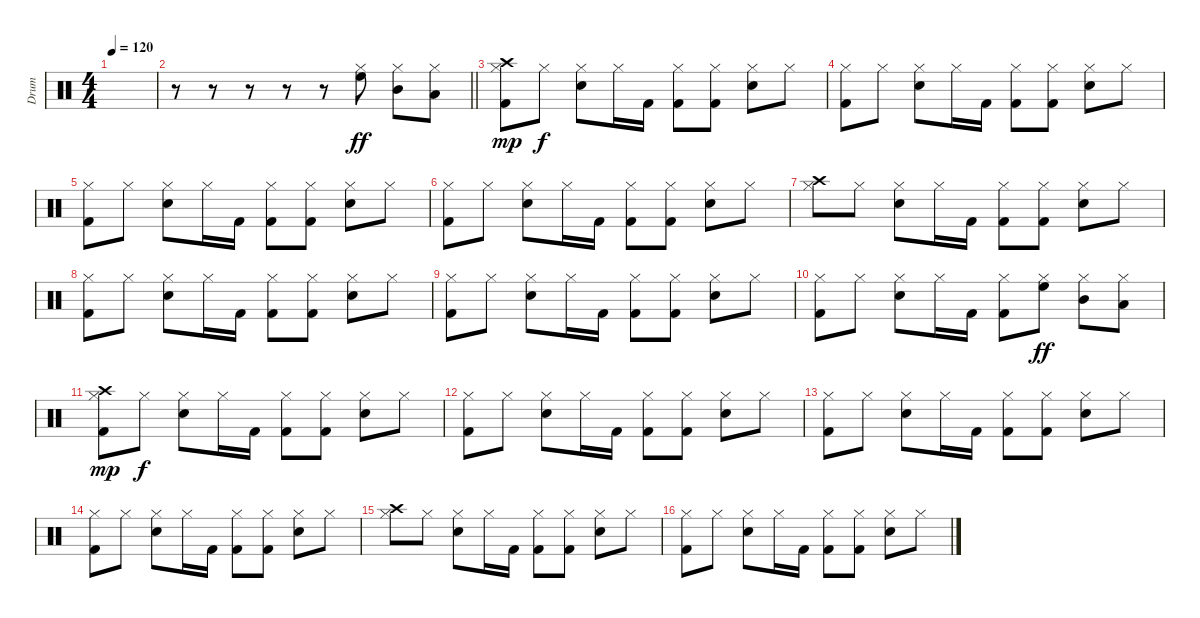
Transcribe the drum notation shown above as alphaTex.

\track ("Drum" "Drum") {instrument percussion}
\staff {score}
\articulation defaults
\ts (4 4)
\tempo 120
\clef neutral
\ks c
|
\barLineRight lightlight
r.8 r.8 r.8 r.8 r.8 ("Hi-Hat (closed)" "High Floor Tom (hit)").8{dy ff} ("Hi-Hat (closed)" "Mid Tom (hit)").8 ("Hi-Hat (closed)" "Low Tom (hit)").8 |
("Kick (hit) 2" "Hi-Hat (closed)" "Crash high (hit)").8{dy mp} "Hi-Hat (closed)".8{dy f} ("Electric Snare (hit)" "Hi-Hat (closed)").8 "Hi-Hat (closed)".16 "Kick (hit) 2".16 ("Kick (hit) 2" "Hi-Hat (closed)").8 ("Kick (hit) 2" "Hi-Hat (closed)").8 ("Electric Snare (hit)" "Hi-Hat (closed)").8 "Hi-Hat (closed)".8 |
("Kick (hit) 2" "Hi-Hat (closed)").8 "Hi-Hat (closed)".8 ("Electric Snare (hit)" "Hi-Hat (closed)").8 "Hi-Hat (closed)".16 "Kick (hit) 2".16 ("Kick (hit) 2" "Hi-Hat (closed)").8 ("Kick (hit) 2" "Hi-Hat (closed)").8 ("Electric Snare (hit)" "Hi-Hat (closed)").8 "Hi-Hat (closed)".8 |
("Kick (hit) 2" "Hi-Hat (closed)").8 "Hi-Hat (closed)".8 ("Electric Snare (hit)" "Hi-Hat (closed)").8 "Hi-Hat (closed)".16 "Kick (hit) 2".16 ("Kick (hit) 2" "Hi-Hat (closed)").8 ("Kick (hit) 2" "Hi-Hat (closed)").8 ("Electric Snare (hit)" "Hi-Hat (closed)").8 "Hi-Hat (closed)".8 |
("Kick (hit) 2" "Hi-Hat (closed)").8 "Hi-Hat (closed)".8 ("Electric Snare (hit)" "Hi-Hat (closed)").8 "Hi-Hat (closed)".16 "Kick (hit) 2".16 ("Kick (hit) 2" "Hi-Hat (closed)").8 ("Kick (hit) 2" "Hi-Hat (closed)").8 ("Electric Snare (hit)" "Hi-Hat (closed)").8 "Hi-Hat (closed)".8 |
("Crash high (hit)" "Hi-Hat (closed)").8 "Hi-Hat (closed)".8 ("Electric Snare (hit)" "Hi-Hat (closed)").8 "Hi-Hat (closed)".16 "Kick (hit) 2".16 ("Kick (hit) 2" "Hi-Hat (closed)").8 ("Kick (hit) 2" "Hi-Hat (closed)").8 ("Electric Snare (hit)" "Hi-Hat (closed)").8 "Hi-Hat (closed)".8 |
("Kick (hit) 2" "Hi-Hat (closed)").8 "Hi-Hat (closed)".8 ("Electric Snare (hit)" "Hi-Hat (closed)").8 "Hi-Hat (closed)".16 "Kick (hit) 2".16 ("Kick (hit) 2" "Hi-Hat (closed)").8 ("Kick (hit) 2" "Hi-Hat (closed)").8 ("Electric Snare (hit)" "Hi-Hat (closed)").8 "Hi-Hat (closed)".8 |
("Kick (hit) 2" "Hi-Hat (closed)").8 "Hi-Hat (closed)".8 ("Electric Snare (hit)" "Hi-Hat (closed)").8 "Hi-Hat (closed)".16 "Kick (hit) 2".16 ("Kick (hit) 2" "Hi-Hat (closed)").8 ("Kick (hit) 2" "Hi-Hat (closed)").8 ("Electric Snare (hit)" "Hi-Hat (closed)").8 "Hi-Hat (closed)".8 |
("Kick (hit) 2" "Hi-Hat (closed)").8 "Hi-Hat (closed)".8 ("Electric Snare (hit)" "Hi-Hat (closed)").8 "Hi-Hat (closed)".16 "Kick (hit) 2".16 ("Kick (hit) 2" "Hi-Hat (closed)").8 ("Hi-Hat (closed)" "High Floor Tom (hit)").8{dy ff} ("Hi-Hat (closed)" "Mid Tom (hit)").8 ("Hi-Hat (closed)" "Low Tom (hit)").8 |
("Kick (hit) 2" "Hi-Hat (closed)" "Crash high (hit)").8{dy mp} "Hi-Hat (closed)".8{dy f} ("Electric Snare (hit)" "Hi-Hat (closed)").8 "Hi-Hat (closed)".16 "Kick (hit) 2".16 ("Kick (hit) 2" "Hi-Hat (closed)").8 ("Kick (hit) 2" "Hi-Hat (closed)").8 ("Electric Snare (hit)" "Hi-Hat (closed)").8 "Hi-Hat (closed)".8 |
("Kick (hit) 2" "Hi-Hat (closed)").8 "Hi-Hat (closed)".8 ("Electric Snare (hit)" "Hi-Hat (closed)").8 "Hi-Hat (closed)".16 "Kick (hit) 2".16 ("Kick (hit) 2" "Hi-Hat (closed)").8 ("Kick (hit) 2" "Hi-Hat (closed)").8 ("Electric Snare (hit)" "Hi-Hat (closed)").8 "Hi-Hat (closed)".8 |
("Kick (hit) 2" "Hi-Hat (closed)").8 "Hi-Hat (closed)".8 ("Electric Snare (hit)" "Hi-Hat (closed)").8 "Hi-Hat (closed)".16 "Kick (hit) 2".16 ("Kick (hit) 2" "Hi-Hat (closed)").8 ("Kick (hit) 2" "Hi-Hat (closed)").8 ("Electric Snare (hit)" "Hi-Hat (closed)").8 "Hi-Hat (closed)".8 |
("Kick (hit) 2" "Hi-Hat (closed)").8 "Hi-Hat (closed)".8 ("Electric Snare (hit)" "Hi-Hat (closed)").8 "Hi-Hat (closed)".16 "Kick (hit) 2".16 ("Kick (hit) 2" "Hi-Hat (closed)").8 ("Kick (hit) 2" "Hi-Hat (closed)").8 ("Electric Snare (hit)" "Hi-Hat (closed)").8 "Hi-Hat (closed)".8 |
("Crash high (hit)" "Hi-Hat (closed)").8 "Hi-Hat (closed)".8 ("Electric Snare (hit)" "Hi-Hat (closed)").8 "Hi-Hat (closed)".16 "Kick (hit) 2".16 ("Kick (hit) 2" "Hi-Hat (closed)").8 ("Kick (hit) 2" "Hi-Hat (closed)").8 ("Electric Snare (hit)" "Hi-Hat (closed)").8 "Hi-Hat (closed)".8 |
("Kick (hit) 2" "Hi-Hat (closed)").8 "Hi-Hat (closed)".8 ("Electric Snare (hit)" "Hi-Hat (closed)").8 "Hi-Hat (closed)".16 "Kick (hit) 2".16 ("Kick (hit) 2" "Hi-Hat (closed)").8 ("Kick (hit) 2" "Hi-Hat (closed)").8 ("Electric Snare (hit)" "Hi-Hat (closed)").8 "Hi-Hat (closed)".8
